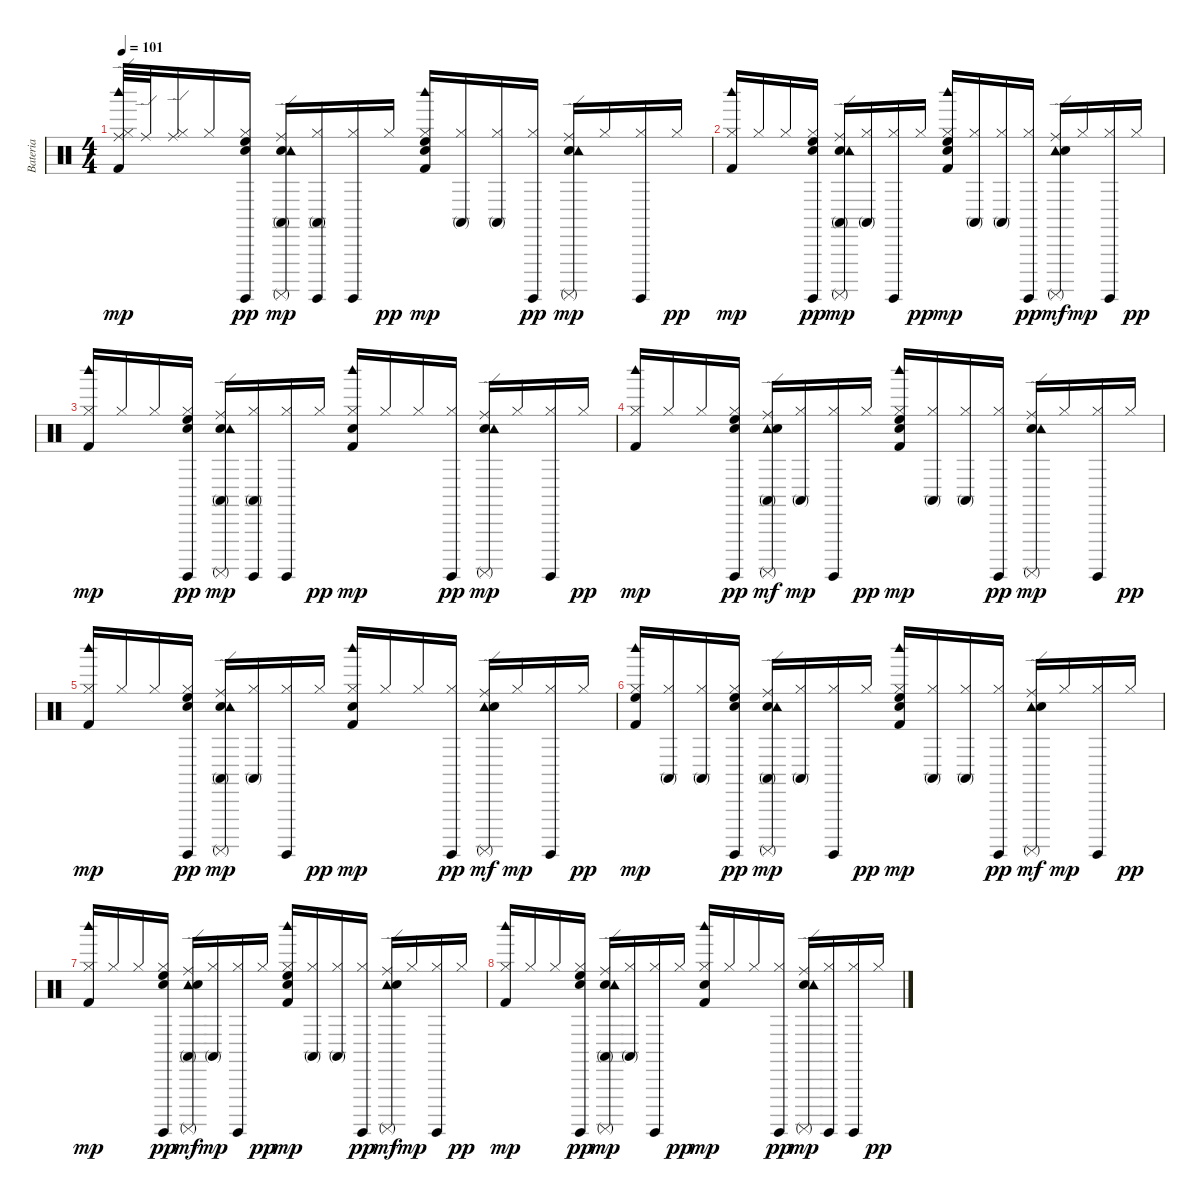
\track ("Bateria" "Bateria") {instrument percussion}
\staff {score}
\articulation defaults
\ts (4 4)
\tempo 101
\clef neutral
\ks c
("Ride (edge)" "Woodblock high (hit)" "Kick (hit) 2" "Hi-Hat (closed)").32{dy mp} "Ride (edge)".32 ("Ride (edge)" "Hi-Hat (closed)").16 "Hi-Hat (closed)".16 ("High Floor Tom (hit)" "Snare (hit)" "Surdo (hit)" "Hi-Hat (closed)").16{dy pp} ("Conga high (mute)" "Ride (edge)" "Electric Snare (hit)" "Surdo (mute)" "Tambourine (hit)").16{dy mp} ("Conga high (mute)" "Surdo (hit)" "Hi-Hat (closed)").16 ("Surdo (hit)" "Hi-Hat (closed)").16 "Hi-Hat (closed)".16{dy pp} ("High Floor Tom (hit)" "Snare (hit)" "Hi-Hat (closed)" "Woodblock high (hit)" "Kick (hit) 2").16{dy mp} ("Conga high (mute)" "Hi-Hat (closed)").16 ("Conga high (mute)" "Hi-Hat (closed)").16 ("Surdo (hit)" "Hi-Hat (closed)").16{dy pp} ("Ride (edge)" "Electric Snare (hit)" "Surdo (mute)" "Tambourine (hit)").16{dy mp} "Hi-Hat (closed)".16 ("Surdo (hit)" "Hi-Hat (closed)").16 "Hi-Hat (closed)".16{dy pp} |
("Kick (hit) 2" "Hi-Hat (closed)" "Woodblock high (hit)").16{dy mp} "Hi-Hat (closed)".16 "Hi-Hat (closed)".16 ("High Floor Tom (hit)" "Snare (hit)" "Surdo (hit)" "Hi-Hat (closed)").16{dy pp} ("Conga high (mute)" "Ride (edge)" "Electric Snare (hit)" "Surdo (mute)" "Tambourine (hit)").16{dy mp} ("Conga high (mute)" "Hi-Hat (closed)").16 ("Surdo (hit)" "Hi-Hat (closed)").16 "Hi-Hat (closed)".16{dy pp} ("High Floor Tom (hit)" "Snare (hit)" "Kick (hit) 2" "Hi-Hat (closed)" "Woodblock high (hit)").16{dy mp} ("Conga high (mute)" "Hi-Hat (closed)").16 ("Conga high (mute)" "Hi-Hat (closed)").16 ("Surdo (hit)" "Hi-Hat (closed)").16{dy pp} ("Ride (edge)" "Surdo (mute)" "Tambourine (hit)" "Electric Snare (hit)").16{dy mf} "Hi-Hat (closed)".16{dy mp} ("Surdo (hit)" "Hi-Hat (closed)").16 "Hi-Hat (closed)".16{dy pp} |
("Kick (hit) 2" "Hi-Hat (closed)" "Woodblock high (hit)").16{dy mp} "Hi-Hat (closed)".16 "Hi-Hat (closed)".16 ("High Floor Tom (hit)" "Snare (hit)" "Surdo (hit)" "Hi-Hat (closed)").16{dy pp} ("Conga high (mute)" "Ride (edge)" "Electric Snare (hit)" "Surdo (mute)" "Tambourine (hit)").16{dy mp} ("Conga high (mute)" "Surdo (hit)" "Hi-Hat (closed)").16 ("Surdo (hit)" "Hi-Hat (closed)").16 "Hi-Hat (closed)".16{dy pp} ("Snare (hit)" "Kick (hit) 2" "Hi-Hat (closed)" "Woodblock high (hit)").16{dy mp} "Hi-Hat (closed)".16 "Hi-Hat (closed)".16 ("Surdo (hit)" "Hi-Hat (closed)").16{dy pp} ("Ride (edge)" "Electric Snare (hit)" "Surdo (mute)" "Tambourine (hit)").16{dy mp} "Hi-Hat (closed)".16 ("Surdo (hit)" "Hi-Hat (closed)").16 "Hi-Hat (closed)".16{dy pp} |
("Hi-Hat (closed)" "Woodblock high (hit)" "Kick (hit) 2").16{dy mp} "Hi-Hat (closed)".16 "Hi-Hat (closed)".16 ("High Floor Tom (hit)" "Snare (hit)" "Surdo (hit)" "Hi-Hat (closed)").16{dy pp} ("Conga high (mute)" "Ride (edge)" "Tambourine (hit)" "Electric Snare (hit)" "Surdo (mute)").16{dy mf} ("Conga high (mute)" "Hi-Hat (closed)").16{dy mp} ("Surdo (hit)" "Hi-Hat (closed)").16 "Hi-Hat (closed)".16{dy pp} ("High Floor Tom (hit)" "Snare (hit)" "Kick (hit) 2" "Hi-Hat (closed)" "Woodblock high (hit)").16{dy mp} ("Conga high (mute)" "Hi-Hat (closed)").16 ("Conga high (mute)" "Hi-Hat (closed)").16 ("Surdo (hit)" "Hi-Hat (closed)").16{dy pp} ("Ride (edge)" "Electric Snare (hit)" "Surdo (mute)" "Tambourine (hit)").16{dy mp} "Hi-Hat (closed)".16 ("Surdo (hit)" "Hi-Hat (closed)").16 "Hi-Hat (closed)".16{dy pp} |
("Kick (hit) 2" "Hi-Hat (closed)" "Woodblock high (hit)").16{dy mp} "Hi-Hat (closed)".16 "Hi-Hat (closed)".16 ("High Floor Tom (hit)" "Snare (hit)" "Surdo (hit)" "Hi-Hat (closed)").16{dy pp} ("Conga high (mute)" "Ride (edge)" "Electric Snare (hit)" "Surdo (mute)" "Tambourine (hit)").16{dy mp} ("Conga high (mute)" "Hi-Hat (closed)").16 ("Surdo (hit)" "Hi-Hat (closed)").16 "Hi-Hat (closed)".16{dy pp} ("Snare (hit)" "Kick (hit) 2" "Hi-Hat (closed)" "Woodblock high (hit)").16{dy mp} "Hi-Hat (closed)".16 "Hi-Hat (closed)".16 ("Surdo (hit)" "Hi-Hat (closed)").16{dy pp} ("Ride (edge)" "Surdo (mute)" "Tambourine (hit)" "Electric Snare (hit)").16{dy mf} "Hi-Hat (closed)".16{dy mp} ("Surdo (hit)" "Hi-Hat (closed)").16 "Hi-Hat (closed)".16{dy pp} |
("High Floor Tom (hit)" "Kick (hit) 2" "Hi-Hat (closed)" "Woodblock high (hit)").16{dy mp} ("Conga high (mute)" "Hi-Hat (closed)").16 ("Conga high (mute)" "Hi-Hat (closed)").16 ("High Floor Tom (hit)" "Snare (hit)" "Surdo (hit)" "Hi-Hat (closed)").16{dy pp} ("Conga high (mute)" "Ride (edge)" "Electric Snare (hit)" "Surdo (mute)" "Tambourine (hit)").16{dy mp} ("Conga high (mute)" "Hi-Hat (closed)").16 ("Surdo (hit)" "Hi-Hat (closed)").16 "Hi-Hat (closed)".16{dy pp} ("High Floor Tom (hit)" "Snare (hit)" "Kick (hit) 2" "Hi-Hat (closed)" "Woodblock high (hit)").16{dy mp} ("Conga high (mute)" "Hi-Hat (closed)").16 ("Conga high (mute)" "Hi-Hat (closed)").16 ("Surdo (hit)" "Hi-Hat (closed)").16{dy pp} ("Ride (edge)" "Surdo (mute)" "Tambourine (hit)" "Electric Snare (hit)").16{dy mf} "Hi-Hat (closed)".16{dy mp} ("Surdo (hit)" "Hi-Hat (closed)").16 "Hi-Hat (closed)".16{dy pp} |
("Kick (hit) 2" "Hi-Hat (closed)" "Woodblock high (hit)").16{dy mp} "Hi-Hat (closed)".16 "Hi-Hat (closed)".16 ("High Floor Tom (hit)" "Snare (hit)" "Surdo (hit)" "Hi-Hat (closed)").16{dy pp} ("Conga high (mute)" "Ride (edge)" "Surdo (mute)" "Tambourine (hit)" "Electric Snare (hit)").16{dy mf} ("Conga high (mute)" "Hi-Hat (closed)").16{dy mp} ("Surdo (hit)" "Hi-Hat (closed)").16 "Hi-Hat (closed)".16{dy pp} ("High Floor Tom (hit)" "Snare (hit)" "Kick (hit) 2" "Hi-Hat (closed)" "Woodblock high (hit)").16{dy mp} ("Conga high (mute)" "Hi-Hat (closed)").16 ("Conga high (mute)" "Hi-Hat (closed)").16 ("Surdo (hit)" "Hi-Hat (closed)").16{dy pp} ("Ride (edge)" "Surdo (mute)" "Tambourine (hit)" "Electric Snare (hit)").16{dy mf} "Hi-Hat (closed)".16{dy mp} ("Surdo (hit)" "Hi-Hat (closed)").16 "Hi-Hat (closed)".16{dy pp} |
("Woodblock high (hit)" "Kick (hit) 2" "Hi-Hat (closed)").16{dy mp} "Hi-Hat (closed)".16 "Hi-Hat (closed)".16 ("High Floor Tom (hit)" "Snare (hit)" "Surdo (hit)" "Hi-Hat (closed)").16{dy pp} ("Conga high (mute)" "Ride (edge)" "Electric Snare (hit)" "Surdo (mute)" "Tambourine (hit)").16{dy mp} ("Conga high (mute)" "Hi-Hat (closed)").16 ("Surdo (hit)" "Hi-Hat (closed)").16 "Hi-Hat (closed)".16{dy pp} ("Snare (hit)" "Kick (hit) 2" "Hi-Hat (closed)" "Woodblock high (hit)").16{dy mp} "Hi-Hat (closed)".16 "Hi-Hat (closed)".16 ("Surdo (hit)" "Hi-Hat (closed)").16{dy pp} ("Ride (edge)" "Electric Snare (hit)" "Surdo (mute)" "Tambourine (hit)").16{dy mp} ("Surdo (hit)" "Hi-Hat (closed)").16 ("Surdo (hit)" "Hi-Hat (closed)").16 "Hi-Hat (closed)".16{dy pp}
